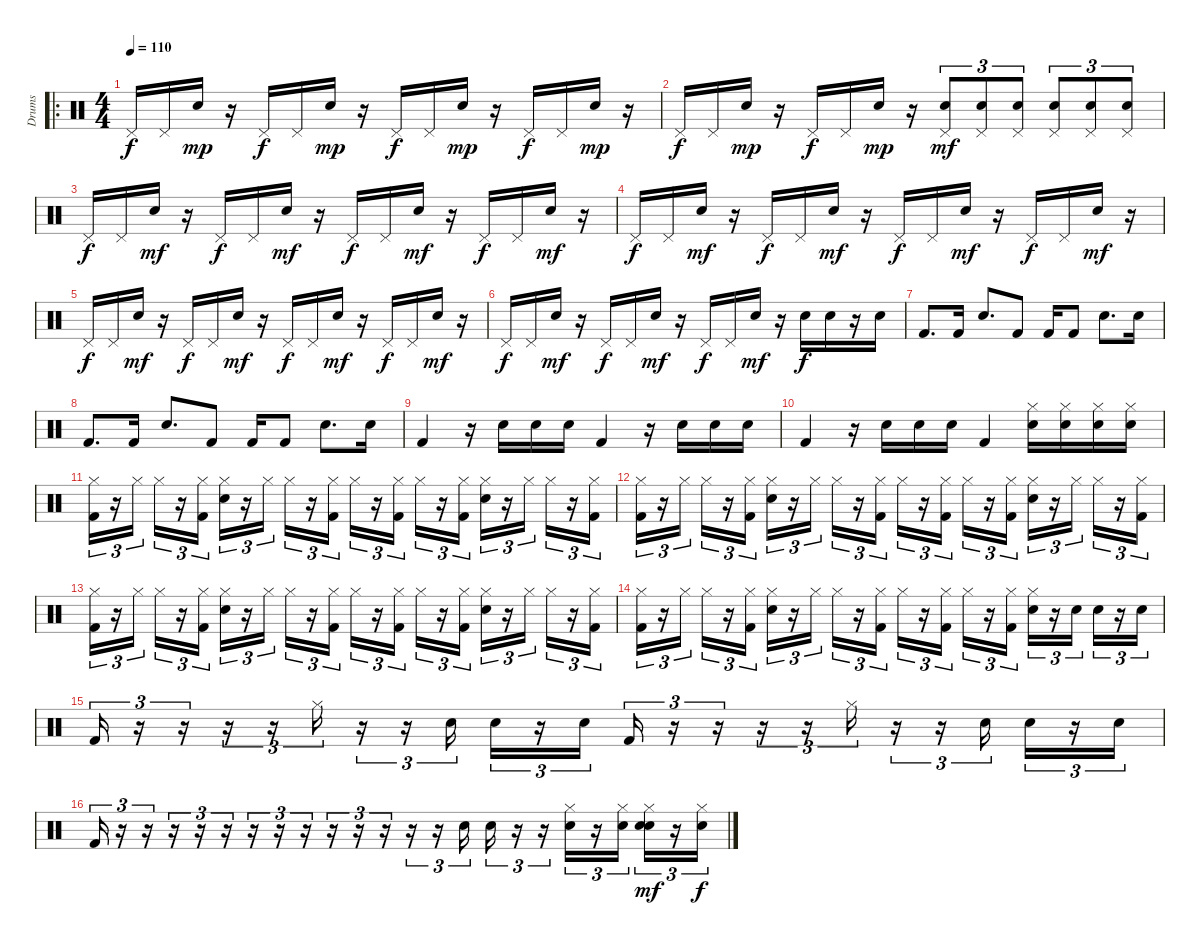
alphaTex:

\track ("Drums" "Drums") {instrument percussion}
\staff {score}
\articulation defaults
\ro
\ts (4 4)
\tempo 110
\clef neutral
\ks c "Pedal Hi-Hat (hit)".16{dy f} "Pedal Hi-Hat (hit)".16 "Electric Snare (hit)".16{dy mp}
r.16 "Pedal Hi-Hat (hit)".16{dy f} "Pedal Hi-Hat (hit)".16 "Electric Snare (hit)".16{dy mp} r.16 "Pedal Hi-Hat (hit)".16{dy f} "Pedal Hi-Hat (hit)".16 "Electric Snare (hit)".16{dy mp} r.16 "Pedal Hi-Hat (hit)".16{dy f} "Pedal Hi-Hat (hit)".16 "Electric Snare (hit)".16{dy mp} r.16 |
"Pedal Hi-Hat (hit)".16{dy f} "Pedal Hi-Hat (hit)".16 "Electric Snare (hit)".16{dy mp} r.16 "Pedal Hi-Hat (hit)".16{dy f} "Pedal Hi-Hat (hit)".16 "Electric Snare (hit)".16{dy mp} r.16 ("Pedal Hi-Hat (hit)" "Electric Snare (hit)").8{tu (3 2) dy mf} ("Pedal Hi-Hat (hit)" "Electric Snare (hit)").8{tu (3 2)} ("Pedal Hi-Hat (hit)" "Electric Snare (hit)").8{tu (3 2)} ("Pedal Hi-Hat (hit)" "Electric Snare (hit)").8{tu (3 2)} ("Pedal Hi-Hat (hit)" "Electric Snare (hit)").8{tu (3 2)} ("Pedal Hi-Hat (hit)" "Electric Snare (hit)").8{tu (3 2)} |
"Pedal Hi-Hat (hit)".16{dy f} "Pedal Hi-Hat (hit)".16 "Electric Snare (hit)".16{dy mf} r.16 "Pedal Hi-Hat (hit)".16{dy f} "Pedal Hi-Hat (hit)".16 "Electric Snare (hit)".16{dy mf} r.16 "Pedal Hi-Hat (hit)".16{dy f} "Pedal Hi-Hat (hit)".16 "Electric Snare (hit)".16{dy mf} r.16 "Pedal Hi-Hat (hit)".16{dy f} "Pedal Hi-Hat (hit)".16 "Electric Snare (hit)".16{dy mf} r.16 |
"Pedal Hi-Hat (hit)".16{dy f} "Pedal Hi-Hat (hit)".16 "Electric Snare (hit)".16{dy mf} r.16 "Pedal Hi-Hat (hit)".16{dy f} "Pedal Hi-Hat (hit)".16 "Electric Snare (hit)".16{dy mf} r.16 "Pedal Hi-Hat (hit)".16{dy f} "Pedal Hi-Hat (hit)".16 "Electric Snare (hit)".16{dy mf} r.16 "Pedal Hi-Hat (hit)".16{dy f} "Pedal Hi-Hat (hit)".16 "Electric Snare (hit)".16{dy mf} r.16 |
"Pedal Hi-Hat (hit)".16{dy f} "Pedal Hi-Hat (hit)".16 "Electric Snare (hit)".16{dy mf} r.16 "Pedal Hi-Hat (hit)".16{dy f} "Pedal Hi-Hat (hit)".16 "Electric Snare (hit)".16{dy mf} r.16 "Pedal Hi-Hat (hit)".16{dy f} "Pedal Hi-Hat (hit)".16 "Electric Snare (hit)".16{dy mf} r.16 "Pedal Hi-Hat (hit)".16{dy f} "Pedal Hi-Hat (hit)".16 "Electric Snare (hit)".16{dy mf} r.16 |
"Pedal Hi-Hat (hit)".16{dy f} "Pedal Hi-Hat (hit)".16 "Electric Snare (hit)".16{dy mf} r.16 "Pedal Hi-Hat (hit)".16{dy f} "Pedal Hi-Hat (hit)".16 "Electric Snare (hit)".16{dy mf} r.16 "Pedal Hi-Hat (hit)".16{dy f} "Pedal Hi-Hat (hit)".16 "Electric Snare (hit)".16{dy mf} r.16 "Electric Snare (hit)".16{dy f} "Electric Snare (hit)".16 r.16 "Electric Snare (hit)".16 |
"Kick (hit) 2".8{d} "Kick (hit) 2".16 "Electric Snare (hit)".8{d} "Kick (hit) 2".8 "Kick (hit) 2".16 "Kick (hit) 2".8 "Electric Snare (hit)".8{d} "Electric Snare (hit)".16 |
"Kick (hit) 2".8{d} "Kick (hit) 2".16 "Electric Snare (hit)".8{d} "Kick (hit) 2".8 "Kick (hit) 2".16 "Kick (hit) 2".8 "Electric Snare (hit)".8{d} "Electric Snare (hit)".16 |
"Kick (hit) 2".4 r.16 "Snare (hit) 2".16 "Snare (hit) 2".16 "Snare (hit) 2".16 "Kick (hit) 2".4 r.16 "Snare (hit) 2".16 "Snare (hit) 2".16 "Snare (hit) 2".16 |
"Kick (hit) 2".4 r.16 "Snare (hit) 2".16 "Snare (hit) 2".16 "Snare (hit) 2".16 "Kick (hit) 2".4 ("Hi-Hat (closed)" "Electric Snare (hit)").16 ("Hi-Hat (closed)" "Electric Snare (hit)").16 ("Hi-Hat (closed)" "Electric Snare (hit)").16 ("Hi-Hat (closed)" "Electric Snare (hit)").16 |
("Hi-Hat (closed)" "Kick (hit) 2").16{tu (3 2)} r.16{tu (3 2)} "Hi-Hat (closed)".16{tu (3 2)} "Hi-Hat (closed)".16{tu (3 2)} r.16{tu (3 2)} ("Hi-Hat (closed)" "Kick (hit) 2").16{tu (3 2)} ("Hi-Hat (closed)" "Electric Snare (hit)").16{tu (3 2)} r.16{tu (3 2)} "Hi-Hat (closed)".16{tu (3 2)} "Hi-Hat (closed)".16{tu (3 2)} r.16{tu (3 2)} ("Hi-Hat (closed)" "Kick (hit) 2").16{tu (3 2)} "Hi-Hat (closed)".16{tu (3 2)} r.16{tu (3 2)} ("Hi-Hat (closed)" "Kick (hit) 2").16{tu (3 2)} "Hi-Hat (closed)".16{tu (3 2)} r.16{tu (3 2)} ("Hi-Hat (closed)" "Kick (hit) 2").16{tu (3 2)} ("Hi-Hat (closed)" "Electric Snare (hit)").16{tu (3 2)} r.16{tu (3 2)} "Hi-Hat (closed)".16{tu (3 2)} "Hi-Hat (closed)".16{tu (3 2)} r.16{tu (3 2)} ("Hi-Hat (closed)" "Kick (hit) 2").16{tu (3 2)} |
("Hi-Hat (closed)" "Kick (hit) 2").16{tu (3 2)} r.16{tu (3 2)} "Hi-Hat (closed)".16{tu (3 2)} "Hi-Hat (closed)".16{tu (3 2)} r.16{tu (3 2)} ("Hi-Hat (closed)" "Kick (hit) 2").16{tu (3 2)} ("Hi-Hat (closed)" "Electric Snare (hit)").16{tu (3 2)} r.16{tu (3 2)} "Hi-Hat (closed)".16{tu (3 2)} "Hi-Hat (closed)".16{tu (3 2)} r.16{tu (3 2)} ("Hi-Hat (closed)" "Kick (hit) 2").16{tu (3 2)} "Hi-Hat (closed)".16{tu (3 2)} r.16{tu (3 2)} ("Hi-Hat (closed)" "Kick (hit) 2").16{tu (3 2)} "Hi-Hat (closed)".16{tu (3 2)} r.16{tu (3 2)} ("Hi-Hat (closed)" "Kick (hit) 2").16{tu (3 2)} ("Hi-Hat (closed)" "Electric Snare (hit)").16{tu (3 2)} r.16{tu (3 2)} "Hi-Hat (closed)".16{tu (3 2)} "Hi-Hat (closed)".16{tu (3 2)} r.16{tu (3 2)} ("Hi-Hat (closed)" "Kick (hit) 2").16{tu (3 2)} |
("Hi-Hat (closed)" "Kick (hit) 2").16{tu (3 2)} r.16{tu (3 2)} "Hi-Hat (closed)".16{tu (3 2)} "Hi-Hat (closed)".16{tu (3 2)} r.16{tu (3 2)} ("Hi-Hat (closed)" "Kick (hit) 2").16{tu (3 2)} ("Hi-Hat (closed)" "Electric Snare (hit)").16{tu (3 2)} r.16{tu (3 2)} "Hi-Hat (closed)".16{tu (3 2)} "Hi-Hat (closed)".16{tu (3 2)} r.16{tu (3 2)} ("Hi-Hat (closed)" "Kick (hit) 2").16{tu (3 2)} "Hi-Hat (closed)".16{tu (3 2)} r.16{tu (3 2)} ("Hi-Hat (closed)" "Kick (hit) 2").16{tu (3 2)} "Hi-Hat (closed)".16{tu (3 2)} r.16{tu (3 2)} ("Hi-Hat (closed)" "Kick (hit) 2").16{tu (3 2)} ("Hi-Hat (closed)" "Electric Snare (hit)").16{tu (3 2)} r.16{tu (3 2)} "Hi-Hat (closed)".16{tu (3 2)} "Hi-Hat (closed)".16{tu (3 2)} r.16{tu (3 2)} ("Hi-Hat (closed)" "Kick (hit) 2").16{tu (3 2)} |
("Hi-Hat (closed)" "Kick (hit) 2").16{tu (3 2)} r.16{tu (3 2)} "Hi-Hat (closed)".16{tu (3 2)} "Hi-Hat (closed)".16{tu (3 2)} r.16{tu (3 2)} ("Hi-Hat (closed)" "Kick (hit) 2").16{tu (3 2)} ("Hi-Hat (closed)" "Electric Snare (hit)").16{tu (3 2)} r.16{tu (3 2)} "Hi-Hat (closed)".16{tu (3 2)} "Hi-Hat (closed)".16{tu (3 2)} r.16{tu (3 2)} ("Hi-Hat (closed)" "Kick (hit) 2").16{tu (3 2)} "Hi-Hat (closed)".16{tu (3 2)} r.16{tu (3 2)} ("Hi-Hat (closed)" "Kick (hit) 2").16{tu (3 2)} "Hi-Hat (closed)".16{tu (3 2)} r.16{tu (3 2)} ("Hi-Hat (closed)" "Kick (hit) 2").16{tu (3 2)} ("Hi-Hat (closed)" "Electric Snare (hit)").16{tu (3 2)} r.16{tu (3 2)} "Electric Snare (hit)".16{tu (3 2)} "Electric Snare (hit)".16{tu (3 2)} r.16{tu (3 2)} "Electric Snare (hit)".16{tu (3 2)} |
"Kick (hit) 2".16{tu (3 2)} r.16{tu (3 2)} r.16{tu (3 2)} r.16{tu (3 2)} r.16{tu (3 2)} "Hi-Hat (closed)".16{tu (3 2)} r.16{tu (3 2)} r.16{tu (3 2)} "Electric Snare (hit)".16{tu (3 2)} "Electric Snare (hit)".16{tu (3 2)} r.16{tu (3 2)} "Electric Snare (hit)".16{tu (3 2)} "Kick (hit) 2".16{tu (3 2)} r.16{tu (3 2)} r.16{tu (3 2)} r.16{tu (3 2)} r.16{tu (3 2)} "Hi-Hat (closed)".16{tu (3 2)} r.16{tu (3 2)} r.16{tu (3 2)} "Electric Snare (hit)".16{tu (3 2)} "Electric Snare (hit)".16{tu (3 2)} r.16{tu (3 2)} "Electric Snare (hit)".16{tu (3 2)} |
"Kick (hit) 2".16{tu (3 2)} r.16{tu (3 2)} r.16{tu (3 2)} r.16{tu (3 2)} r.16{tu (3 2)} r.16{tu (3 2)} r.16{tu (3 2)} r.16{tu (3 2)} r.16{tu (3 2)} r.16{tu (3 2)} r.16{tu (3 2)} r.16{tu (3 2)} r.16{tu (3 2)} r.16{tu (3 2)} "Electric Snare (hit)".16{tu (3 2)} "Electric Snare (hit)".16{tu (3 2)} r.16{tu (3 2)} r.16{tu (3 2)} ("Hi-Hat (closed)" "Electric Snare (hit)").16{tu (3 2)} r.16{tu (3 2)} ("Hi-Hat (closed)" "Electric Snare (hit)").16{tu (3 2)} ("Hi-Hat (closed)" "Electric Snare (hit)" "Snare (hit) 2").16{tu (3 2) dy mf} r.16{tu (3 2)} ("Hi-Hat (closed)" "Snare (hit) 2").16{tu (3 2) dy f}
